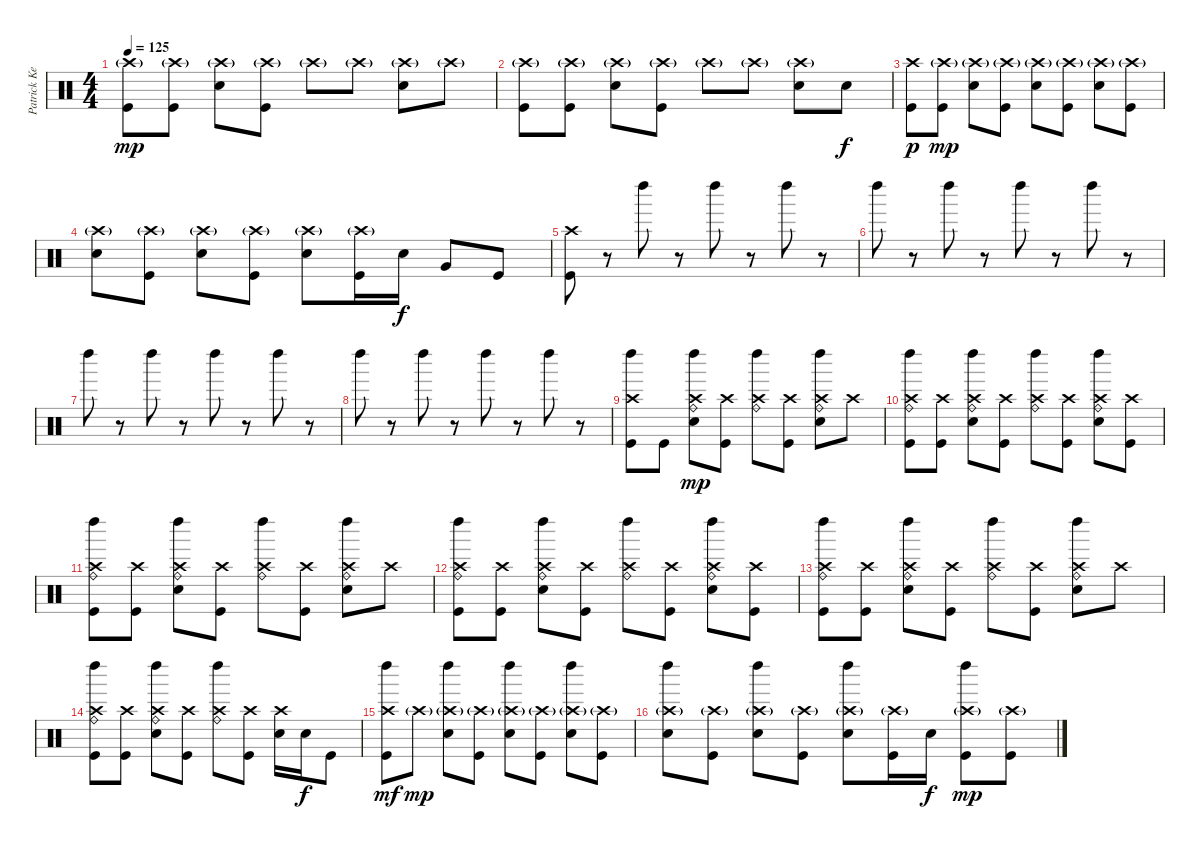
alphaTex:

\track ("Patrick Keeler" "Patrick Ke") {instrument percussion}
\staff {score}
\articulation defaults
\ts (4 4)
\tempo 125
\clef neutral
\ks c
("Crash high (hit)"{g} "Kick (hit)").8{dy mp} ("Crash high (hit)"{g} "Kick (hit)").8 ("Crash high (hit)"{g} "Electric Snare (hit)").8 ("Crash high (hit)"{g} "Kick (hit)").8 "Crash high (hit)"{g}.8 "Crash high (hit)"{g}.8 ("Crash high (hit)"{g} "Electric Snare (hit)").8 "Crash high (hit)"{g}.8 |
("Crash high (hit)"{g} "Kick (hit)").8 ("Crash high (hit)"{g} "Kick (hit)").8 ("Crash high (hit)"{g} "Electric Snare (hit)").8 ("Crash high (hit)"{g} "Kick (hit)").8 "Crash high (hit)"{g}.8 "Crash high (hit)"{g}.8 ("Crash high (hit)"{g} "Electric Snare (hit)").8 "Electric Snare (hit)".8{dy f} |
("Crash high (hit)" "Kick (hit)").8{dy p} ("Crash high (hit)"{g} "Kick (hit)").8{dy mp} ("Crash high (hit)"{g} "Electric Snare (hit)").8 ("Crash high (hit)"{g} "Kick (hit)").8 ("Crash high (hit)"{g} "Electric Snare (hit)").8 ("Crash high (hit)"{g} "Kick (hit)").8 ("Crash high (hit)"{g} "Electric Snare (hit)").8 ("Crash high (hit)"{g} "Kick (hit)").8 |
("Crash high (hit)"{g} "Electric Snare (hit)").8 ("Crash high (hit)"{g} "Kick (hit)").8 ("Crash high (hit)"{g} "Electric Snare (hit)").8 ("Crash high (hit)"{g} "Kick (hit)").8 ("Crash high (hit)"{g} "Electric Snare (hit)").8 ("Crash high (hit)"{g} "Kick (hit)").16 "Electric Snare (hit)".16{dy f} "Very Low Tom (hit)".8 "Kick (hit)".8 |
("Crash high (hit)" "Kick (hit)").8 r.8 "Left Maraca (hit)".8 r.8 "Left Maraca (hit)".8 r.8 "Left Maraca (hit)".8 r.8 |
"Left Maraca (hit)".8 r.8 "Left Maraca (hit)".8 r.8 "Left Maraca (hit)".8 r.8 "Left Maraca (hit)".8 r.8 |
"Left Maraca (hit)".8 r.8 "Left Maraca (hit)".8 r.8 "Left Maraca (hit)".8 r.8 "Left Maraca (hit)".8 r.8 |
"Left Maraca (hit)".8 r.8 "Left Maraca (hit)".8 r.8 "Left Maraca (hit)".8 r.8 "Left Maraca (hit)".8 r.8 |
("Crash high (hit)" "Left Maraca (hit)" "Kick (hit)").8 "Kick (hit)".8 ("Crash high (hit)" "Ride (bell)" "Left Maraca (hit)" "Electric Snare (hit)").8{dy mp} ("Crash high (hit)" "Kick (hit)").8 ("Crash high (hit)" "Ride (bell)" "Left Maraca (hit)").8 ("Crash high (hit)" "Kick (hit)").8 ("Crash high (hit)" "Ride (bell)" "Left Maraca (hit)" "Electric Snare (hit)").8 "Crash high (hit)".8 |
("Crash high (hit)" "Ride (bell)" "Left Maraca (hit)" "Kick (hit)").8 ("Crash high (hit)" "Kick (hit)").8 ("Crash high (hit)" "Ride (bell)" "Left Maraca (hit)" "Electric Snare (hit)").8 ("Crash high (hit)" "Kick (hit)").8 ("Crash high (hit)" "Ride (bell)" "Left Maraca (hit)").8 ("Crash high (hit)" "Kick (hit)").8 ("Crash high (hit)" "Ride (bell)" "Left Maraca (hit)" "Electric Snare (hit)").8 ("Crash high (hit)" "Kick (hit)").8 |
("Crash high (hit)" "Ride (bell)" "Left Maraca (hit)" "Kick (hit)").8 ("Crash high (hit)" "Kick (hit)").8 ("Crash high (hit)" "Ride (bell)" "Left Maraca (hit)" "Electric Snare (hit)").8 ("Crash high (hit)" "Kick (hit)").8 ("Crash high (hit)" "Ride (bell)" "Left Maraca (hit)").8 ("Crash high (hit)" "Kick (hit)").8 ("Crash high (hit)" "Ride (bell)" "Left Maraca (hit)" "Electric Snare (hit)").8 "Crash high (hit)".8 |
("Crash high (hit)" "Ride (bell)" "Left Maraca (hit)" "Kick (hit)").8 ("Crash high (hit)" "Kick (hit)").8 ("Crash high (hit)" "Ride (bell)" "Left Maraca (hit)" "Electric Snare (hit)").8 ("Crash high (hit)" "Kick (hit)").8 ("Crash high (hit)" "Ride (bell)" "Left Maraca (hit)").8 ("Crash high (hit)" "Kick (hit)").8 ("Crash high (hit)" "Ride (bell)" "Left Maraca (hit)" "Electric Snare (hit)").8 ("Crash high (hit)" "Kick (hit)").8 |
("Crash high (hit)" "Ride (bell)" "Left Maraca (hit)" "Kick (hit)").8 ("Crash high (hit)" "Kick (hit)").8 ("Crash high (hit)" "Ride (bell)" "Left Maraca (hit)" "Electric Snare (hit)").8 ("Crash high (hit)" "Kick (hit)").8 ("Crash high (hit)" "Ride (bell)" "Left Maraca (hit)").8 ("Crash high (hit)" "Kick (hit)").8 ("Crash high (hit)" "Ride (bell)" "Left Maraca (hit)" "Electric Snare (hit)").8 "Crash high (hit)".8 |
("Crash high (hit)" "Ride (bell)" "Left Maraca (hit)" "Kick (hit)").8 ("Crash high (hit)" "Kick (hit)").8 ("Crash high (hit)" "Ride (bell)" "Left Maraca (hit)" "Electric Snare (hit)").8 ("Crash high (hit)" "Kick (hit)").8 ("Crash high (hit)" "Ride (bell)" "Left Maraca (hit)").8 ("Crash high (hit)" "Kick (hit)").8 ("Crash high (hit)" "Electric Snare (hit)").16 "Electric Snare (hit)".16{dy f} "Kick (hit)".8 |
("Crash high (hit)" "Left Maraca (hit)" "Kick (hit)").8{dy mf} "Crash high (hit)"{g}.8{dy mp} ("Crash high (hit)"{g} "Left Maraca (hit)" "Electric Snare (hit)").8 ("Crash high (hit)"{g} "Kick (hit)").8 ("Crash high (hit)"{g} "Left Maraca (hit)" "Electric Snare (hit)").8 ("Crash high (hit)"{g} "Kick (hit)").8 ("Crash high (hit)"{g} "Left Maraca (hit)" "Electric Snare (hit)").8 ("Crash high (hit)"{g} "Kick (hit)").8 |
("Crash high (hit)"{g} "Left Maraca (hit)" "Electric Snare (hit)").8 ("Crash high (hit)"{g} "Kick (hit)").8 ("Crash high (hit)"{g} "Left Maraca (hit)" "Electric Snare (hit)").8 ("Crash high (hit)"{g} "Kick (hit)").8 ("Crash high (hit)"{g} "Left Maraca (hit)" "Electric Snare (hit)").8 ("Crash high (hit)"{g} "Kick (hit)").16 "Electric Snare (hit)".16{dy f} ("Crash high (hit)"{g} "Left Maraca (hit)" "Kick (hit)").8{dy mp} ("Crash high (hit)"{g} "Kick (hit)").8
